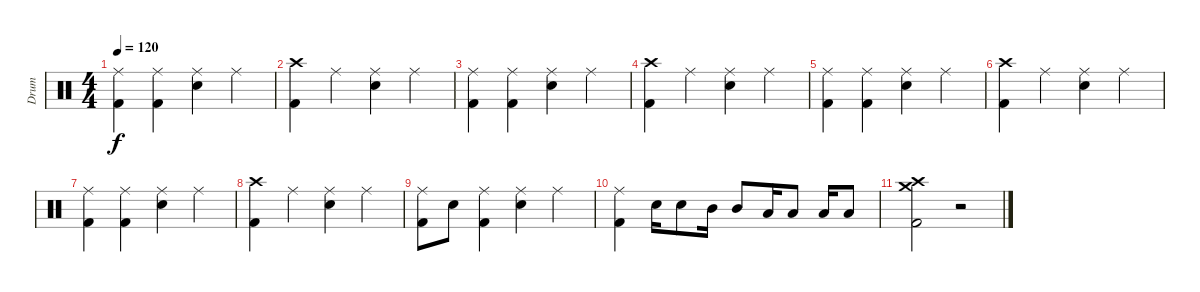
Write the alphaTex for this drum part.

\track ("Drum" "Drum") {instrument percussion}
\staff {score}
\articulation defaults
\ts (4 4)
\tempo 120
\clef neutral
\ks c
("Ride (middle)" "Kick (hit) 2").4{dy f} ("Ride (middle)" "Kick (hit) 2").4 ("Snare (hit) 2" "Ride (middle)").4 "Ride (middle)".4 |
("Crash high (hit)" "Kick (hit) 2").4 "Ride (middle)".4 ("Ride (middle)" "Snare (hit) 2").4 "Ride (middle)".4 |
("Ride (middle)" "Kick (hit) 2").4 ("Ride (middle)" "Kick (hit) 2").4 ("Snare (hit) 2" "Ride (middle)").4 "Ride (middle)".4 |
("Crash high (hit)" "Kick (hit) 2").4 "Ride (middle)".4 ("Ride (middle)" "Snare (hit) 2").4 "Ride (middle)".4 |
("Ride (middle)" "Kick (hit) 2").4 ("Ride (middle)" "Kick (hit) 2").4 ("Snare (hit) 2" "Ride (middle)").4 "Ride (middle)".4 |
("Crash high (hit)" "Kick (hit) 2").4 "Ride (middle)".4 ("Ride (middle)" "Snare (hit) 2").4 "Ride (middle)".4 |
("Ride (middle)" "Kick (hit) 2").4 ("Kick (hit) 2" "Ride (middle)").4 ("Ride (middle)" "Snare (hit) 2").4 "Ride (middle)".4 |
("Crash high (hit)" "Kick (hit) 2").4 "Ride (middle)".4 ("Ride (middle)" "Snare (hit) 2").4 "Ride (middle)".4 |
("Ride (middle)" "Kick (hit) 2").8 "Snare (hit) 2".8 ("Ride (middle)" "Kick (hit) 2").4 ("Ride (middle)" "Snare (hit) 2").4 "Ride (middle)".4 |
("Kick (hit) 2" "Ride (middle)").4 "Snare (hit) 2".16 "Snare (hit) 2".8 "Mid Tom (hit)".16 "Mid Tom (hit)".8 "Low Tom (hit)".16 "Low Tom (hit)".8 "Low Floor Tom (hit)".16 "Low Floor Tom (hit)".8 |
("Kick (hit) 2" "Crash high (hit)" "Crash medium (hit)").2 r.2
